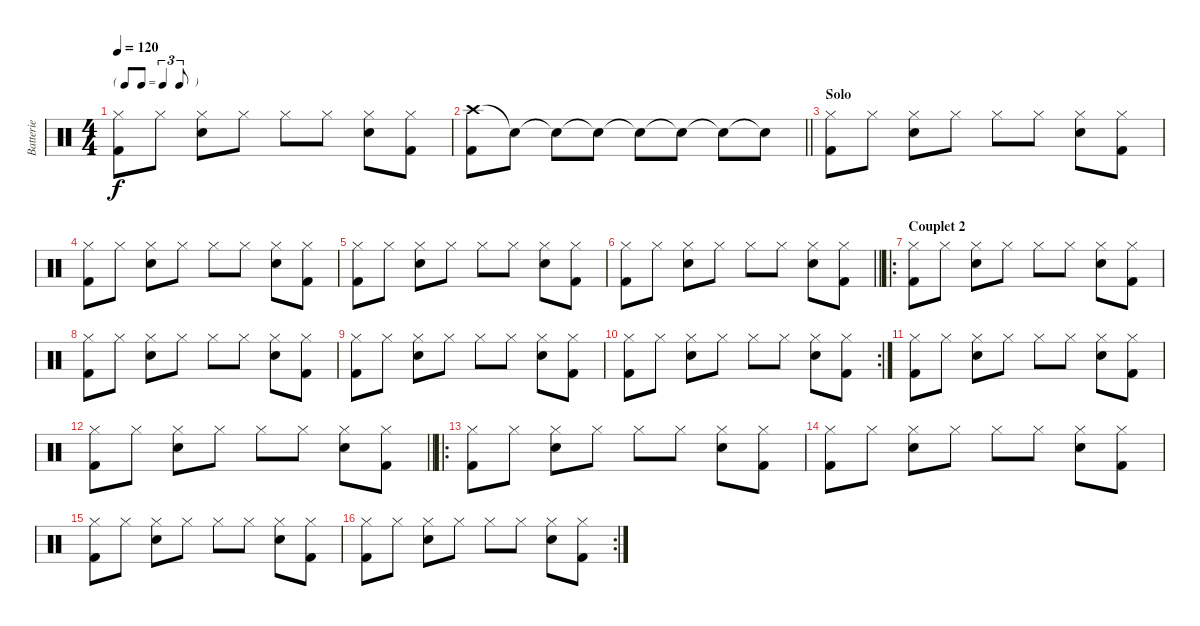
\track ("Batterie" "Batterie") {instrument percussion}
\staff {score}
\articulation defaults
\ts (4 4)
\tf triplet8th
\tempo 120
\clef neutral
\ks c
("Kick (hit) 2" "Hi-Hat (closed)").8{dy f} "Hi-Hat (closed)".8 ("Hi-Hat (closed)" "Snare (hit) 2").8 "Hi-Hat (closed)".8 "Hi-Hat (closed)".8 "Hi-Hat (closed)".8 ("Snare (hit) 2" "Hi-Hat (closed)").8 ("Hi-Hat (closed)" "Kick (hit) 2").8 |
\barLineRight lightlight
("Crash high (hit)" "Kick (hit) 2").8 "Snare (hit)"{t}.8 "Snare (hit)"{t}.8 "Snare (hit)"{t}.8 "Snare (hit)"{t}.8 "Snare (hit)"{t}.8 "Snare (hit)"{t}.8 "Snare (hit)"{t}.8 |
\section ("" "Solo")
("Kick (hit) 2" "Hi-Hat (closed)").8 "Hi-Hat (closed)".8 ("Hi-Hat (closed)" "Snare (hit) 2").8 "Hi-Hat (closed)".8 "Hi-Hat (closed)".8 "Hi-Hat (closed)".8 ("Snare (hit) 2" "Hi-Hat (closed)").8 ("Hi-Hat (closed)" "Kick (hit) 2").8 |
("Kick (hit) 2" "Hi-Hat (closed)").8 "Hi-Hat (closed)".8 ("Hi-Hat (closed)" "Snare (hit) 2").8 "Hi-Hat (closed)".8 "Hi-Hat (closed)".8 "Hi-Hat (closed)".8 ("Snare (hit) 2" "Hi-Hat (closed)").8 ("Hi-Hat (closed)" "Kick (hit) 2").8 |
("Kick (hit) 2" "Hi-Hat (closed)").8 "Hi-Hat (closed)".8 ("Hi-Hat (closed)" "Snare (hit) 2").8 "Hi-Hat (closed)".8 "Hi-Hat (closed)".8 "Hi-Hat (closed)".8 ("Snare (hit) 2" "Hi-Hat (closed)").8 ("Hi-Hat (closed)" "Kick (hit) 2").8 |
\barLineRight lightlight
("Kick (hit) 2" "Hi-Hat (closed)").8 "Hi-Hat (closed)".8 ("Hi-Hat (closed)" "Snare (hit) 2").8 "Hi-Hat (closed)".8 "Hi-Hat (closed)".8 "Hi-Hat (closed)".8 ("Snare (hit) 2" "Hi-Hat (closed)").8 ("Hi-Hat (closed)" "Kick (hit) 2").8 |
\ro
\section ("" "Couplet 2")
("Kick (hit) 2" "Hi-Hat (closed)").8 "Hi-Hat (closed)".8 ("Hi-Hat (closed)" "Snare (hit) 2").8 "Hi-Hat (closed)".8 "Hi-Hat (closed)".8 "Hi-Hat (closed)".8 ("Snare (hit) 2" "Hi-Hat (closed)").8 ("Hi-Hat (closed)" "Kick (hit) 2").8 |
("Kick (hit) 2" "Hi-Hat (closed)").8 "Hi-Hat (closed)".8 ("Hi-Hat (closed)" "Snare (hit) 2").8 "Hi-Hat (closed)".8 "Hi-Hat (closed)".8 "Hi-Hat (closed)".8 ("Snare (hit) 2" "Hi-Hat (closed)").8 ("Hi-Hat (closed)" "Kick (hit) 2").8 |
("Kick (hit) 2" "Hi-Hat (closed)").8 "Hi-Hat (closed)".8 ("Hi-Hat (closed)" "Snare (hit) 2").8 "Hi-Hat (closed)".8 "Hi-Hat (closed)".8 "Hi-Hat (closed)".8 ("Snare (hit) 2" "Hi-Hat (closed)").8 ("Hi-Hat (closed)" "Kick (hit) 2").8 |
\rc 2
("Kick (hit) 2" "Hi-Hat (closed)").8 "Hi-Hat (closed)".8 ("Hi-Hat (closed)" "Snare (hit) 2").8 "Hi-Hat (closed)".8 "Hi-Hat (closed)".8 "Hi-Hat (closed)".8 ("Snare (hit) 2" "Hi-Hat (closed)").8 ("Hi-Hat (closed)" "Kick (hit) 2").8 |
("Kick (hit) 2" "Hi-Hat (closed)").8 "Hi-Hat (closed)".8 ("Hi-Hat (closed)" "Snare (hit) 2").8 "Hi-Hat (closed)".8 "Hi-Hat (closed)".8 "Hi-Hat (closed)".8 ("Snare (hit) 2" "Hi-Hat (closed)").8 ("Hi-Hat (closed)" "Kick (hit) 2").8 |
\barLineRight lightlight
("Kick (hit) 2" "Hi-Hat (closed)").8 "Hi-Hat (closed)".8 ("Hi-Hat (closed)" "Snare (hit) 2").8 "Hi-Hat (closed)".8 "Hi-Hat (closed)".8 "Hi-Hat (closed)".8 ("Snare (hit) 2" "Hi-Hat (closed)").8 ("Hi-Hat (closed)" "Kick (hit) 2").8 |
\ro
("Kick (hit) 2" "Hi-Hat (closed)").8 "Hi-Hat (closed)".8 ("Hi-Hat (closed)" "Snare (hit) 2").8 "Hi-Hat (closed)".8 "Hi-Hat (closed)".8 "Hi-Hat (closed)".8 ("Snare (hit) 2" "Hi-Hat (closed)").8 ("Hi-Hat (closed)" "Kick (hit) 2").8 |
("Kick (hit) 2" "Hi-Hat (closed)").8 "Hi-Hat (closed)".8 ("Hi-Hat (closed)" "Snare (hit) 2").8 "Hi-Hat (closed)".8 "Hi-Hat (closed)".8 "Hi-Hat (closed)".8 ("Snare (hit) 2" "Hi-Hat (closed)").8 ("Hi-Hat (closed)" "Kick (hit) 2").8 |
("Kick (hit) 2" "Hi-Hat (closed)").8 "Hi-Hat (closed)".8 ("Hi-Hat (closed)" "Snare (hit) 2").8 "Hi-Hat (closed)".8 "Hi-Hat (closed)".8 "Hi-Hat (closed)".8 ("Snare (hit) 2" "Hi-Hat (closed)").8 ("Hi-Hat (closed)" "Kick (hit) 2").8 |
\rc 2
("Kick (hit) 2" "Hi-Hat (closed)").8 "Hi-Hat (closed)".8 ("Hi-Hat (closed)" "Snare (hit) 2").8 "Hi-Hat (closed)".8 "Hi-Hat (closed)".8 "Hi-Hat (closed)".8 ("Snare (hit) 2" "Hi-Hat (closed)").8 ("Hi-Hat (closed)" "Kick (hit) 2").8
